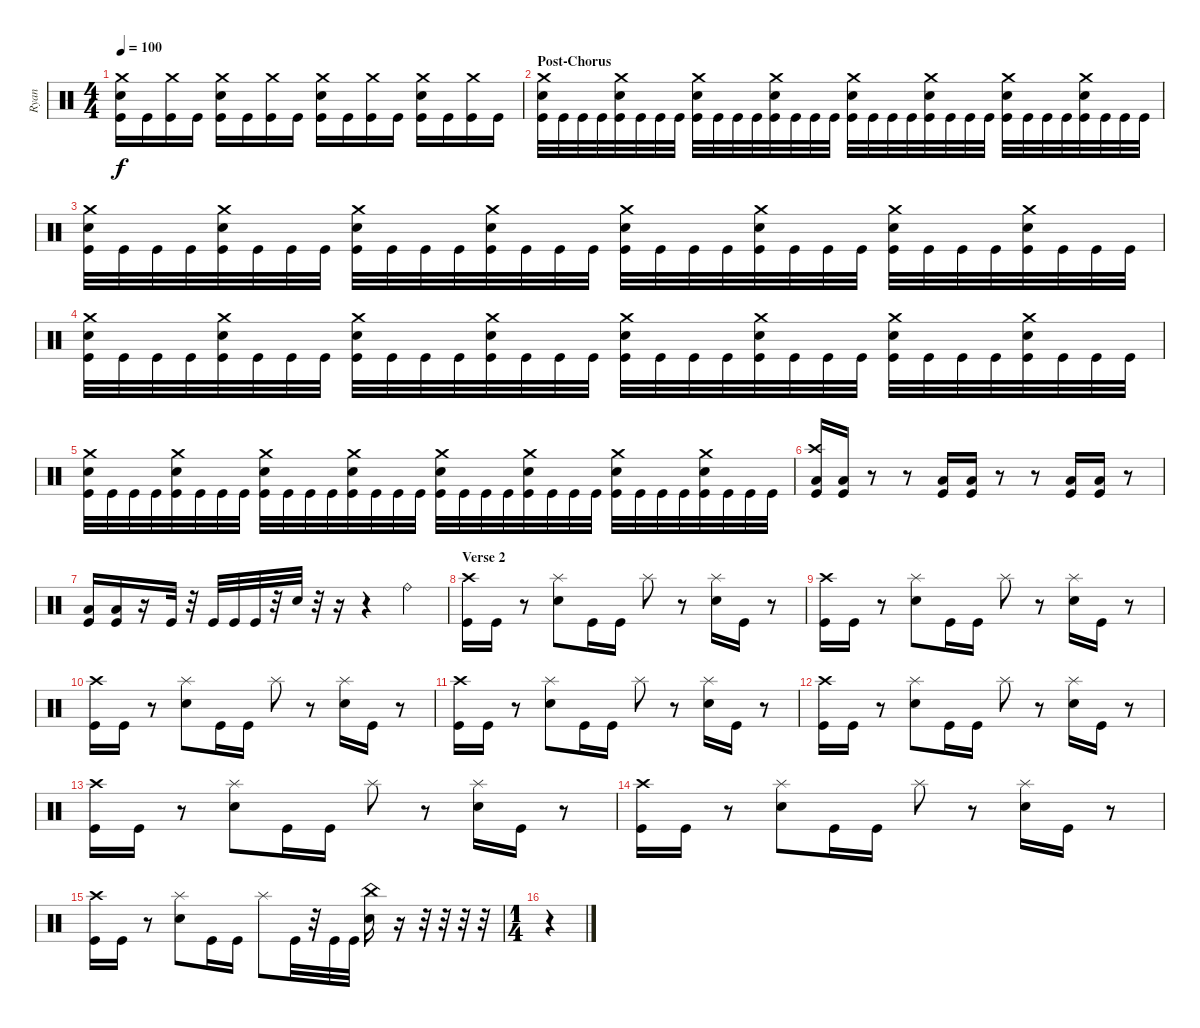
\track ("Ryan" "Ryan") {instrument percussion}
\staff {score}
\articulation defaults
\ts (4 4)
\tempo 100
\clef neutral
\ks c
("Crash medium (hit)" "Electric Snare (hit)" "Kick (hit)").16{dy f} "Kick (hit)".16 ("Crash medium (hit)" "Kick (hit)").16 "Kick (hit)".16 ("Crash medium (hit)" "Electric Snare (hit)" "Kick (hit)").16 "Kick (hit)".16 ("Crash medium (hit)" "Kick (hit)").16 "Kick (hit)".16 ("Crash medium (hit)" "Electric Snare (hit)" "Kick (hit)").16 "Kick (hit)".16 ("Crash medium (hit)" "Kick (hit)").16 "Kick (hit)".16 ("Crash medium (hit)" "Electric Snare (hit)" "Kick (hit)").16 "Kick (hit)".16 ("Crash medium (hit)" "Kick (hit)").16 "Kick (hit)".16 |
\section ("" "Post-Chorus")
("Crash medium (hit)" "Electric Snare (hit)" "Kick (hit)").32 "Kick (hit)".32 "Kick (hit)".32 "Kick (hit)".32 ("Crash medium (hit)" "Electric Snare (hit)" "Kick (hit)").32 "Kick (hit)".32 "Kick (hit)".32 "Kick (hit)".32 ("Crash medium (hit)" "Electric Snare (hit)" "Kick (hit)").32 "Kick (hit)".32 "Kick (hit)".32 "Kick (hit)".32 ("Crash medium (hit)" "Electric Snare (hit)" "Kick (hit)").32 "Kick (hit)".32 "Kick (hit)".32 "Kick (hit)".32 ("Crash medium (hit)" "Electric Snare (hit)" "Kick (hit)").32 "Kick (hit)".32 "Kick (hit)".32 "Kick (hit)".32 ("Crash medium (hit)" "Electric Snare (hit)" "Kick (hit)").32 "Kick (hit)".32 "Kick (hit)".32 "Kick (hit)".32 ("Crash medium (hit)" "Electric Snare (hit)" "Kick (hit)").32 "Kick (hit)".32 "Kick (hit)".32 "Kick (hit)".32 ("Crash medium (hit)" "Electric Snare (hit)" "Kick (hit)").32 "Kick (hit)".32 "Kick (hit)".32 "Kick (hit)".32 |
("Crash medium (hit)" "Electric Snare (hit)" "Kick (hit)").32 "Kick (hit)".32 "Kick (hit)".32 "Kick (hit)".32 ("Crash medium (hit)" "Electric Snare (hit)" "Kick (hit)").32 "Kick (hit)".32 "Kick (hit)".32 "Kick (hit)".32 ("Crash medium (hit)" "Electric Snare (hit)" "Kick (hit)").32 "Kick (hit)".32 "Kick (hit)".32 "Kick (hit)".32 ("Crash medium (hit)" "Electric Snare (hit)" "Kick (hit)").32 "Kick (hit)".32 "Kick (hit)".32 "Kick (hit)".32 ("Crash medium (hit)" "Electric Snare (hit)" "Kick (hit)").32 "Kick (hit)".32 "Kick (hit)".32 "Kick (hit)".32 ("Crash medium (hit)" "Electric Snare (hit)" "Kick (hit)").32 "Kick (hit)".32 "Kick (hit)".32 "Kick (hit)".32 ("Crash medium (hit)" "Electric Snare (hit)" "Kick (hit)").32 "Kick (hit)".32 "Kick (hit)".32 "Kick (hit)".32 ("Crash medium (hit)" "Electric Snare (hit)" "Kick (hit)").32 "Kick (hit)".32 "Kick (hit)".32 "Kick (hit)".32 |
("Crash medium (hit)" "Electric Snare (hit)" "Kick (hit)").32 "Kick (hit)".32 "Kick (hit)".32 "Kick (hit)".32 ("Crash medium (hit)" "Electric Snare (hit)" "Kick (hit)").32 "Kick (hit)".32 "Kick (hit)".32 "Kick (hit)".32 ("Crash medium (hit)" "Electric Snare (hit)" "Kick (hit)").32 "Kick (hit)".32 "Kick (hit)".32 "Kick (hit)".32 ("Crash medium (hit)" "Electric Snare (hit)" "Kick (hit)").32 "Kick (hit)".32 "Kick (hit)".32 "Kick (hit)".32 ("Crash medium (hit)" "Electric Snare (hit)" "Kick (hit)").32 "Kick (hit)".32 "Kick (hit)".32 "Kick (hit)".32 ("Crash medium (hit)" "Electric Snare (hit)" "Kick (hit)").32 "Kick (hit)".32 "Kick (hit)".32 "Kick (hit)".32 ("Crash medium (hit)" "Electric Snare (hit)" "Kick (hit)").32 "Kick (hit)".32 "Kick (hit)".32 "Kick (hit)".32 ("Crash medium (hit)" "Electric Snare (hit)" "Kick (hit)").32 "Kick (hit)".32 "Kick (hit)".32 "Kick (hit)".32 |
("Crash medium (hit)" "Electric Snare (hit)" "Kick (hit)").32 "Kick (hit)".32 "Kick (hit)".32 "Kick (hit)".32 ("Crash medium (hit)" "Electric Snare (hit)" "Kick (hit)").32 "Kick (hit)".32 "Kick (hit)".32 "Kick (hit)".32 ("Crash medium (hit)" "Electric Snare (hit)" "Kick (hit)").32 "Kick (hit)".32 "Kick (hit)".32 "Kick (hit)".32 ("Crash medium (hit)" "Electric Snare (hit)" "Kick (hit)").32 "Kick (hit)".32 "Kick (hit)".32 "Kick (hit)".32 ("Crash medium (hit)" "Electric Snare (hit)" "Kick (hit)").32 "Kick (hit)".32 "Kick (hit)".32 "Kick (hit)".32 ("Crash medium (hit)" "Electric Snare (hit)" "Kick (hit)").32 "Kick (hit)".32 "Kick (hit)".32 "Kick (hit)".32 ("Crash medium (hit)" "Electric Snare (hit)" "Kick (hit)").32 "Kick (hit)".32 "Kick (hit)".32 "Kick (hit)".32 ("Crash medium (hit)" "Electric Snare (hit)" "Kick (hit)").32 "Kick (hit)".32 "Kick (hit)".32 "Kick (hit)".32 |
("Crash high (hit)" "Low Floor Tom (hit)" "Kick (hit)").16 ("Low Floor Tom (hit)" "Kick (hit)").16 r.8 r.8 ("Low Floor Tom (hit)" "Kick (hit)").16 ("Low Floor Tom (hit)" "Kick (hit)").16 r.8 r.8 ("Low Floor Tom (hit)" "Kick (hit)").16 ("Low Floor Tom (hit)" "Kick (hit)").16 r.8 |
("Low Floor Tom (hit)" "Kick (hit)").16 ("Low Floor Tom (hit)" "Kick (hit)").16 r.16 "Kick (hit)".32 r.32 "Kick (hit)".32 "Kick (hit)".32 "Kick (hit)".32 r.32 "Electric Snare (hit)".32 r.32 r.16 r.4 "Ride (bell)".4 |
\section ("" "Verse 2")
("Crash high (hit)" "Kick (hit)").16 "Kick (hit)".16 r.8 ("Splash (hit)" "Electric Snare (hit)").8 "Kick (hit)".16 "Kick (hit)".16 "Splash (hit)".8 r.8 ("Splash (hit)" "Electric Snare (hit)").16 "Kick (hit)".16 r.8 |
("Crash high (hit)" "Kick (hit)").16 "Kick (hit)".16 r.8 ("Splash (hit)" "Electric Snare (hit)").8 "Kick (hit)".16 "Kick (hit)".16 "Splash (hit)".8 r.8 ("Splash (hit)" "Electric Snare (hit)").16 "Kick (hit)".16 r.8 |
("Crash high (hit)" "Kick (hit)").16 "Kick (hit)".16 r.8 ("Splash (hit)" "Electric Snare (hit)").8 "Kick (hit)".16 "Kick (hit)".16 "Splash (hit)".8 r.8 ("Splash (hit)" "Electric Snare (hit)").16 "Kick (hit)".16 r.8 |
("Crash high (hit)" "Kick (hit)").16 "Kick (hit)".16 r.8 ("Splash (hit)" "Electric Snare (hit)").8 "Kick (hit)".16 "Kick (hit)".16 "Splash (hit)".8 r.8 ("Splash (hit)" "Electric Snare (hit)").16 "Kick (hit)".16 r.8 |
("Crash high (hit)" "Kick (hit)").16 "Kick (hit)".16 r.8 ("Splash (hit)" "Electric Snare (hit)").8 "Kick (hit)".16 "Kick (hit)".16 "Splash (hit)".8 r.8 ("Splash (hit)" "Electric Snare (hit)").16 "Kick (hit)".16 r.8 |
("Crash high (hit)" "Kick (hit)").16 "Kick (hit)".16 r.8 ("Splash (hit)" "Electric Snare (hit)").8 "Kick (hit)".16 "Kick (hit)".16 "Splash (hit)".8 r.8 ("Splash (hit)" "Electric Snare (hit)").16 "Kick (hit)".16 r.8 |
("Crash high (hit)" "Kick (hit)").16 "Kick (hit)".16 r.8 ("Splash (hit)" "Electric Snare (hit)").8 "Kick (hit)".16 "Kick (hit)".16 "Splash (hit)".8 r.8 ("Splash (hit)" "Electric Snare (hit)").16 "Kick (hit)".16 r.8 |
("Crash high (hit)" "Kick (hit)").16 "Kick (hit)".16 r.8 ("Splash (hit)" "Electric Snare (hit)").8 "Kick (hit)".16 "Kick (hit)".16 "Splash (hit)".8 "Kick (hit)".32 r.32 "Kick (hit)".32 "Kick (hit)".32 ("China (hit)" "Electric Snare (hit)").16 r.16 r.32 r.32 r.32 r.32 |
\ts (1 4)
r.4
